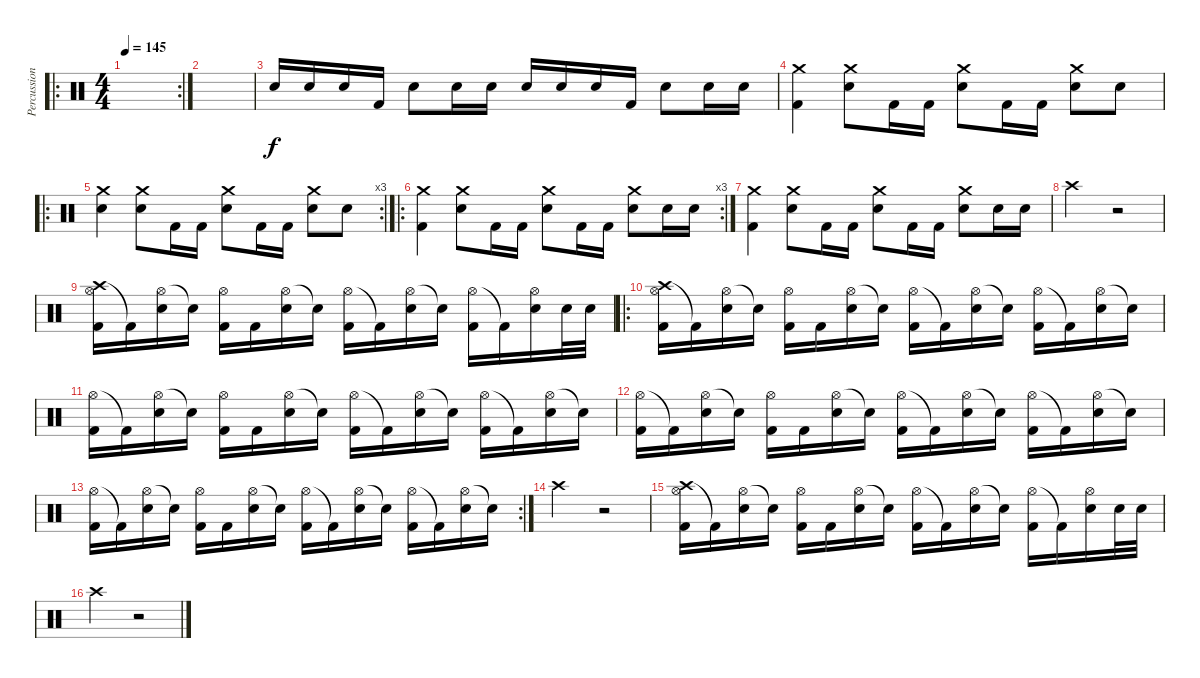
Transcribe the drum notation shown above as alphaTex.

\track ("Percussions" "Percussion") {instrument percussion}
\staff {score}
\articulation defaults
\ro
\rc 2
\ts (4 4)
\tempo 145
\clef neutral
\ks c
|
|
"Electric Snare (hit)".16 "Electric Snare (hit)".16 "Electric Snare (hit)".16 "Kick (hit) 2".16 "Electric Snare (hit)".8 "Electric Snare (hit)".16 "Electric Snare (hit)".16 "Electric Snare (hit)".16 "Electric Snare (hit)".16 "Electric Snare (hit)".16 "Kick (hit) 2".16 "Electric Snare (hit)".8 "Electric Snare (hit)".16 "Electric Snare (hit)".16 |
("Crash medium (hit)" "Kick (hit) 2").4 ("Crash medium (hit)" "Electric Snare (hit)").8 "Kick (hit) 2".16 "Kick (hit) 2".16 ("Crash medium (hit)" "Electric Snare (hit)").8 "Kick (hit) 2".16 "Kick (hit) 2".16 ("Crash medium (hit)" "Electric Snare (hit)").8 "Electric Snare (hit)".8 |
\ro
\rc 3
("Crash medium (hit)" "Electric Snare (hit)").4 ("Crash medium (hit)" "Electric Snare (hit)").8 "Kick (hit) 2".16 "Kick (hit) 2".16 ("Crash medium (hit)" "Electric Snare (hit)").8 "Kick (hit) 2".16 "Kick (hit) 2".16 ("Crash medium (hit)" "Electric Snare (hit)").8 "Electric Snare (hit)".8 |
\ro
\rc 3
("Crash medium (hit)" "Kick (hit) 2").4 ("Crash medium (hit)" "Electric Snare (hit)").8 "Kick (hit) 2".16 "Kick (hit) 2".16 ("Crash medium (hit)" "Electric Snare (hit)").8 "Kick (hit) 2".16 "Kick (hit) 2".16 ("Crash medium (hit)" "Electric Snare (hit)").8 "Electric Snare (hit)".16 "Electric Snare (hit)".16 |
("Crash medium (hit)" "Kick (hit) 2").4 ("Crash medium (hit)" "Electric Snare (hit)").8 "Kick (hit) 2".16 "Kick (hit) 2".16 ("Crash medium (hit)" "Electric Snare (hit)").8 "Kick (hit) 2".16 "Kick (hit) 2".16 ("Crash medium (hit)" "Electric Snare (hit)").8 "Electric Snare (hit)".16 "Electric Snare (hit)".16 |
"Crash high (hit)".2 r.2 |
("Crash high (hit)" "Hi-Hat (open)" "Kick (hit) 2").16 "Kick (hit) 2"{t}.16 ("Hi-Hat (open)" "Electric Snare (hit)").16 "Electric Snare (hit)"{t}.16 ("Hi-Hat (open)" "Kick (hit) 2").16 "Kick (hit) 2".16 ("Hi-Hat (open)" "Electric Snare (hit)").16 "Electric Snare (hit)"{t}.16 ("Hi-Hat (open)" "Kick (hit) 2").16 "Kick (hit) 2"{t}.16 ("Hi-Hat (open)" "Electric Snare (hit)").16 "Electric Snare (hit)"{t}.16 ("Hi-Hat (open)" "Kick (hit) 2").16 "Kick (hit) 2"{t}.16 ("Hi-Hat (open)" "Electric Snare (hit)").16 "Electric Snare (hit)".32 "Electric Snare (hit)".32 |
\ro
("Crash high (hit)" "Hi-Hat (open)" "Kick (hit) 2").16 "Kick (hit) 2"{t}.16 ("Hi-Hat (open)" "Electric Snare (hit)").16 "Electric Snare (hit)"{t}.16 ("Hi-Hat (open)" "Kick (hit) 2").16 "Kick (hit) 2".16 ("Hi-Hat (open)" "Electric Snare (hit)").16 "Electric Snare (hit)"{t}.16 ("Hi-Hat (open)" "Kick (hit) 2").16 "Kick (hit) 2"{t}.16 ("Hi-Hat (open)" "Electric Snare (hit)").16 "Electric Snare (hit)"{t}.16 ("Hi-Hat (open)" "Kick (hit) 2").16 "Kick (hit) 2"{t}.16 ("Hi-Hat (open)" "Electric Snare (hit)").16 "Snare (hit)"{t}.16 |
("Hi-Hat (open)" "Kick (hit) 2").16 "Kick (hit) 2"{t}.16 ("Hi-Hat (open)" "Electric Snare (hit)").16 "Electric Snare (hit)"{t}.16 ("Hi-Hat (open)" "Kick (hit) 2").16 "Kick (hit) 2".16 ("Hi-Hat (open)" "Electric Snare (hit)").16 "Electric Snare (hit)"{t}.16 ("Hi-Hat (open)" "Kick (hit) 2").16 "Kick (hit) 2"{t}.16 ("Hi-Hat (open)" "Electric Snare (hit)").16 "Electric Snare (hit)"{t}.16 ("Hi-Hat (open)" "Kick (hit) 2").16 "Kick (hit) 2"{t}.16 ("Hi-Hat (open)" "Electric Snare (hit)").16 "Snare (hit)"{t}.16 |
("Hi-Hat (open)" "Kick (hit) 2").16 "Kick (hit) 2"{t}.16 ("Hi-Hat (open)" "Electric Snare (hit)").16 "Electric Snare (hit)"{t}.16 ("Hi-Hat (open)" "Kick (hit) 2").16 "Kick (hit) 2".16 ("Hi-Hat (open)" "Electric Snare (hit)").16 "Electric Snare (hit)"{t}.16 ("Hi-Hat (open)" "Kick (hit) 2").16 "Kick (hit) 2"{t}.16 ("Hi-Hat (open)" "Electric Snare (hit)").16 "Electric Snare (hit)"{t}.16 ("Hi-Hat (open)" "Kick (hit) 2").16 "Kick (hit) 2"{t}.16 ("Hi-Hat (open)" "Electric Snare (hit)").16 "Snare (hit)"{t}.16 |
\rc 2
("Hi-Hat (open)" "Kick (hit) 2").16 "Kick (hit) 2"{t}.16 ("Hi-Hat (open)" "Electric Snare (hit)").16 "Electric Snare (hit)"{t}.16 ("Hi-Hat (open)" "Kick (hit) 2").16 "Kick (hit) 2".16 ("Hi-Hat (open)" "Electric Snare (hit)").16 "Electric Snare (hit)"{t}.16 ("Hi-Hat (open)" "Kick (hit) 2").16 "Kick (hit) 2"{t}.16 ("Hi-Hat (open)" "Electric Snare (hit)").16 "Electric Snare (hit)"{t}.16 ("Hi-Hat (open)" "Kick (hit) 2").16 "Kick (hit) 2"{t}.16 ("Hi-Hat (open)" "Electric Snare (hit)").16 "Snare (hit)"{t}.16 |
"Crash high (hit)".2 r.2 |
("Crash high (hit)" "Hi-Hat (open)" "Kick (hit) 2").16 "Kick (hit) 2"{t}.16 ("Hi-Hat (open)" "Electric Snare (hit)").16 "Electric Snare (hit)"{t}.16 ("Hi-Hat (open)" "Kick (hit) 2").16 "Kick (hit) 2".16 ("Hi-Hat (open)" "Electric Snare (hit)").16 "Electric Snare (hit)"{t}.16 ("Hi-Hat (open)" "Kick (hit) 2").16 "Kick (hit) 2"{t}.16 ("Hi-Hat (open)" "Electric Snare (hit)").16 "Electric Snare (hit)"{t}.16 ("Hi-Hat (open)" "Kick (hit) 2").16 "Kick (hit) 2"{t}.16 ("Hi-Hat (open)" "Electric Snare (hit)").16 "Electric Snare (hit)".32 "Electric Snare (hit)".32 |
"Crash high (hit)".2 r.2
